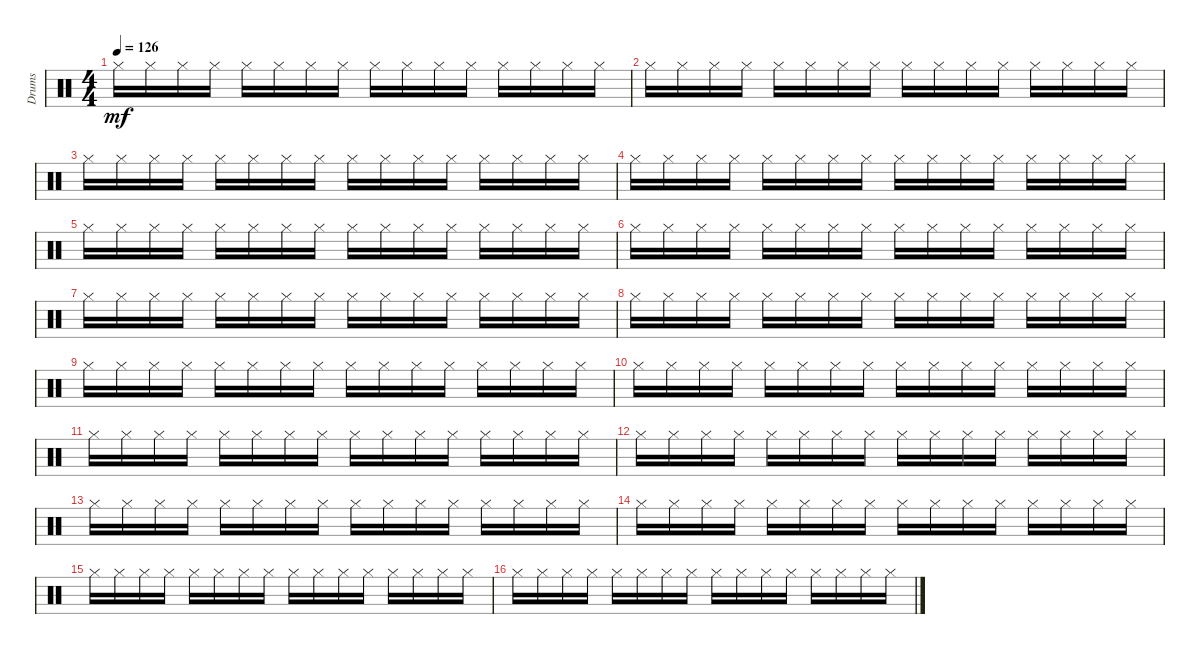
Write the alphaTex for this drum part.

\track ("Drums" "Drums") {instrument percussion}
\staff {score}
\articulation defaults
\ts (4 4)
\tempo 126
\clef neutral
\ks c "Hi-Hat (closed)".16{dy mf} "Hi-Hat (closed)".16 "Hi-Hat (closed)".16 "Hi-Hat (closed)".16 "Hi-Hat (closed)".16 "Hi-Hat (closed)".16 "Hi-Hat (closed)".16 "Hi-Hat (closed)".16 "Hi-Hat (closed)".16 "Hi-Hat (closed)".16 "Hi-Hat (closed)".16 "Hi-Hat (closed)".16 "Hi-Hat (closed)".16 "Hi-Hat (closed)".16 "Hi-Hat (closed)".16 "Hi-Hat (closed)".16
|
"Hi-Hat (closed)".16 "Hi-Hat (closed)".16 "Hi-Hat (closed)".16 "Hi-Hat (closed)".16 "Hi-Hat (closed)".16 "Hi-Hat (closed)".16 "Hi-Hat (closed)".16 "Hi-Hat (closed)".16 "Hi-Hat (closed)".16 "Hi-Hat (closed)".16 "Hi-Hat (closed)".16 "Hi-Hat (closed)".16 "Hi-Hat (closed)".16 "Hi-Hat (closed)".16 "Hi-Hat (closed)".16 "Hi-Hat (closed)".16 |
"Hi-Hat (closed)".16 "Hi-Hat (closed)".16 "Hi-Hat (closed)".16 "Hi-Hat (closed)".16 "Hi-Hat (closed)".16 "Hi-Hat (closed)".16 "Hi-Hat (closed)".16 "Hi-Hat (closed)".16 "Hi-Hat (closed)".16 "Hi-Hat (closed)".16 "Hi-Hat (closed)".16 "Hi-Hat (closed)".16 "Hi-Hat (closed)".16 "Hi-Hat (closed)".16 "Hi-Hat (closed)".16 "Hi-Hat (closed)".16 |
"Hi-Hat (closed)".16 "Hi-Hat (closed)".16 "Hi-Hat (closed)".16 "Hi-Hat (closed)".16 "Hi-Hat (closed)".16 "Hi-Hat (closed)".16 "Hi-Hat (closed)".16 "Hi-Hat (closed)".16 "Hi-Hat (closed)".16 "Hi-Hat (closed)".16 "Hi-Hat (closed)".16 "Hi-Hat (closed)".16 "Hi-Hat (closed)".16 "Hi-Hat (closed)".16 "Hi-Hat (closed)".16 "Hi-Hat (closed)".16 |
"Hi-Hat (closed)".16 "Hi-Hat (closed)".16 "Hi-Hat (closed)".16 "Hi-Hat (closed)".16 "Hi-Hat (closed)".16 "Hi-Hat (closed)".16 "Hi-Hat (closed)".16 "Hi-Hat (closed)".16 "Hi-Hat (closed)".16 "Hi-Hat (closed)".16 "Hi-Hat (closed)".16 "Hi-Hat (closed)".16 "Hi-Hat (closed)".16 "Hi-Hat (closed)".16 "Hi-Hat (closed)".16 "Hi-Hat (closed)".16 |
"Hi-Hat (closed)".16 "Hi-Hat (closed)".16 "Hi-Hat (closed)".16 "Hi-Hat (closed)".16 "Hi-Hat (closed)".16 "Hi-Hat (closed)".16 "Hi-Hat (closed)".16 "Hi-Hat (closed)".16 "Hi-Hat (closed)".16 "Hi-Hat (closed)".16 "Hi-Hat (closed)".16 "Hi-Hat (closed)".16 "Hi-Hat (closed)".16 "Hi-Hat (closed)".16 "Hi-Hat (closed)".16 "Hi-Hat (closed)".16 |
"Hi-Hat (closed)".16 "Hi-Hat (closed)".16 "Hi-Hat (closed)".16 "Hi-Hat (closed)".16 "Hi-Hat (closed)".16 "Hi-Hat (closed)".16 "Hi-Hat (closed)".16 "Hi-Hat (closed)".16 "Hi-Hat (closed)".16 "Hi-Hat (closed)".16 "Hi-Hat (closed)".16 "Hi-Hat (closed)".16 "Hi-Hat (closed)".16 "Hi-Hat (closed)".16 "Hi-Hat (closed)".16 "Hi-Hat (closed)".16 |
"Hi-Hat (closed)".16 "Hi-Hat (closed)".16 "Hi-Hat (closed)".16 "Hi-Hat (closed)".16 "Hi-Hat (closed)".16 "Hi-Hat (closed)".16 "Hi-Hat (closed)".16 "Hi-Hat (closed)".16 "Hi-Hat (closed)".16 "Hi-Hat (closed)".16 "Hi-Hat (closed)".16 "Hi-Hat (closed)".16 "Hi-Hat (closed)".16 "Hi-Hat (closed)".16 "Hi-Hat (closed)".16 "Hi-Hat (closed)".16 |
"Hi-Hat (closed)".16 "Hi-Hat (closed)".16 "Hi-Hat (closed)".16 "Hi-Hat (closed)".16 "Hi-Hat (closed)".16 "Hi-Hat (closed)".16 "Hi-Hat (closed)".16 "Hi-Hat (closed)".16 "Hi-Hat (closed)".16 "Hi-Hat (closed)".16 "Hi-Hat (closed)".16 "Hi-Hat (closed)".16 "Hi-Hat (closed)".16 "Hi-Hat (closed)".16 "Hi-Hat (closed)".16 "Hi-Hat (closed)".16 |
"Hi-Hat (closed)".16 "Hi-Hat (closed)".16 "Hi-Hat (closed)".16 "Hi-Hat (closed)".16 "Hi-Hat (closed)".16 "Hi-Hat (closed)".16 "Hi-Hat (closed)".16 "Hi-Hat (closed)".16 "Hi-Hat (closed)".16 "Hi-Hat (closed)".16 "Hi-Hat (closed)".16 "Hi-Hat (closed)".16 "Hi-Hat (closed)".16 "Hi-Hat (closed)".16 "Hi-Hat (closed)".16 "Hi-Hat (closed)".16 |
"Hi-Hat (closed)".16 "Hi-Hat (closed)".16 "Hi-Hat (closed)".16 "Hi-Hat (closed)".16 "Hi-Hat (closed)".16 "Hi-Hat (closed)".16 "Hi-Hat (closed)".16 "Hi-Hat (closed)".16 "Hi-Hat (closed)".16 "Hi-Hat (closed)".16 "Hi-Hat (closed)".16 "Hi-Hat (closed)".16 "Hi-Hat (closed)".16 "Hi-Hat (closed)".16 "Hi-Hat (closed)".16 "Hi-Hat (closed)".16 |
"Hi-Hat (closed)".16 "Hi-Hat (closed)".16 "Hi-Hat (closed)".16 "Hi-Hat (closed)".16 "Hi-Hat (closed)".16 "Hi-Hat (closed)".16 "Hi-Hat (closed)".16 "Hi-Hat (closed)".16 "Hi-Hat (closed)".16 "Hi-Hat (closed)".16 "Hi-Hat (closed)".16 "Hi-Hat (closed)".16 "Hi-Hat (closed)".16 "Hi-Hat (closed)".16 "Hi-Hat (closed)".16 "Hi-Hat (closed)".16 |
"Hi-Hat (closed)".16 "Hi-Hat (closed)".16 "Hi-Hat (closed)".16 "Hi-Hat (closed)".16 "Hi-Hat (closed)".16 "Hi-Hat (closed)".16 "Hi-Hat (closed)".16 "Hi-Hat (closed)".16 "Hi-Hat (closed)".16 "Hi-Hat (closed)".16 "Hi-Hat (closed)".16 "Hi-Hat (closed)".16 "Hi-Hat (closed)".16 "Hi-Hat (closed)".16 "Hi-Hat (closed)".16 "Hi-Hat (closed)".16 |
"Hi-Hat (closed)".16 "Hi-Hat (closed)".16 "Hi-Hat (closed)".16 "Hi-Hat (closed)".16 "Hi-Hat (closed)".16 "Hi-Hat (closed)".16 "Hi-Hat (closed)".16 "Hi-Hat (closed)".16 "Hi-Hat (closed)".16 "Hi-Hat (closed)".16 "Hi-Hat (closed)".16 "Hi-Hat (closed)".16 "Hi-Hat (closed)".16 "Hi-Hat (closed)".16 "Hi-Hat (closed)".16 "Hi-Hat (closed)".16 |
"Hi-Hat (closed)".16 "Hi-Hat (closed)".16 "Hi-Hat (closed)".16 "Hi-Hat (closed)".16 "Hi-Hat (closed)".16 "Hi-Hat (closed)".16 "Hi-Hat (closed)".16 "Hi-Hat (closed)".16 "Hi-Hat (closed)".16 "Hi-Hat (closed)".16 "Hi-Hat (closed)".16 "Hi-Hat (closed)".16 "Hi-Hat (closed)".16 "Hi-Hat (closed)".16 "Hi-Hat (closed)".16 "Hi-Hat (closed)".16 |
"Hi-Hat (closed)".16 "Hi-Hat (closed)".16 "Hi-Hat (closed)".16 "Hi-Hat (closed)".16 "Hi-Hat (closed)".16 "Hi-Hat (closed)".16 "Hi-Hat (closed)".16 "Hi-Hat (closed)".16 "Hi-Hat (closed)".16 "Hi-Hat (closed)".16 "Hi-Hat (closed)".16 "Hi-Hat (closed)".16 "Hi-Hat (closed)".16 "Hi-Hat (closed)".16 "Hi-Hat (closed)".16 "Hi-Hat (closed)".16
